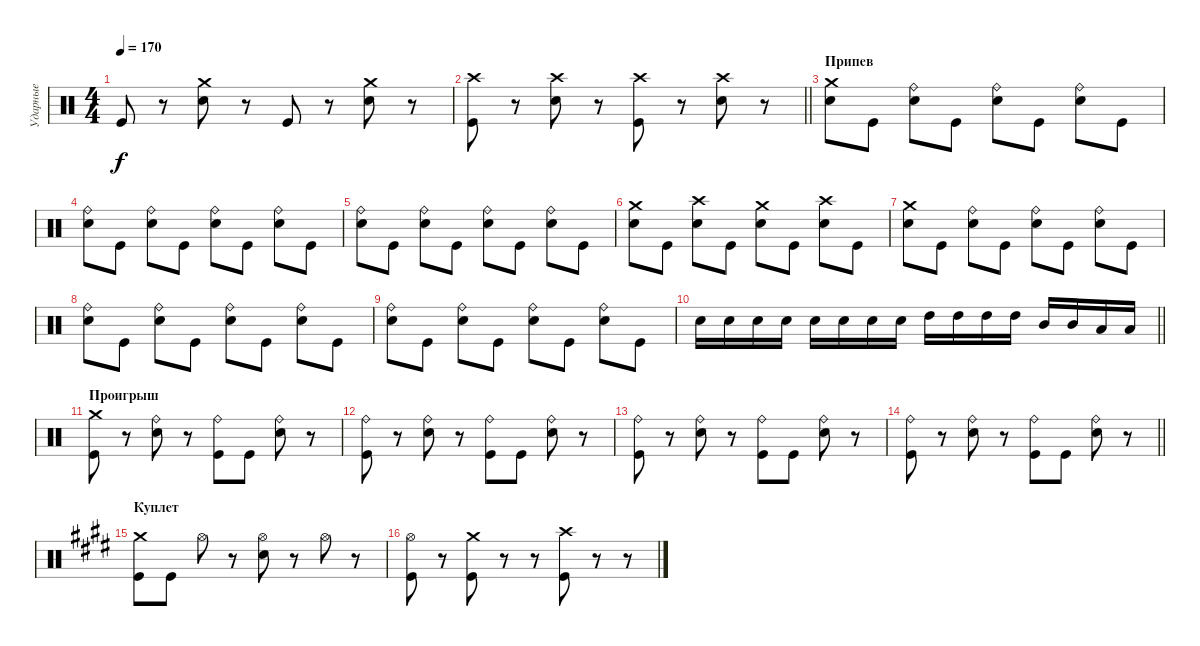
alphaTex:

\track ("Ударные" "Ударные") {instrument percussion}
\staff {score}
\articulation defaults
\ts (4 4)
\tempo 170
\clef neutral
\ks c "Kick (hit)".8{dy f}
r.8 ("Crash medium (hit)" "Electric Snare (hit)").8 r.8 "Kick (hit)".8 r.8 ("Crash medium (hit)" "Electric Snare (hit)").8 r.8 |
\barLineRight lightlight
("Crash high (hit)" "Kick (hit)").8 r.8 ("Crash high (hit)" "Electric Snare (hit)").8 r.8 ("Crash high (hit)" "Kick (hit)").8 r.8 ("Crash high (hit)" "Electric Snare (hit)").8 r.8 |
\section ("" "Припев")
("Crash medium (hit)" "Electric Snare (hit)").8 "Kick (hit)".8 ("Ride (bell)" "Electric Snare (hit)").8 "Kick (hit)".8 ("Ride (bell)" "Electric Snare (hit)").8 "Kick (hit)".8 ("Ride (bell)" "Electric Snare (hit)").8 "Kick (hit)".8 |
("Ride (bell)" "Electric Snare (hit)").8 "Kick (hit)".8 ("Ride (bell)" "Electric Snare (hit)").8 "Kick (hit)".8 ("Ride (bell)" "Electric Snare (hit)").8 "Kick (hit)".8 ("Ride (bell)" "Electric Snare (hit)").8 "Kick (hit)".8 |
("Ride (bell)" "Electric Snare (hit)").8 "Kick (hit)".8 ("Ride (bell)" "Electric Snare (hit)").8 "Kick (hit)".8 ("Ride (bell)" "Electric Snare (hit)").8 "Kick (hit)".8 ("Ride (bell)" "Electric Snare (hit)").8 "Kick (hit)".8 |
("Crash medium (hit)" "Electric Snare (hit)").8 "Kick (hit)".8 ("Crash high (hit)" "Electric Snare (hit)").8 "Kick (hit)".8 ("Crash medium (hit)" "Electric Snare (hit)").8 "Kick (hit)".8 ("Crash high (hit)" "Electric Snare (hit)").8 "Kick (hit)".8 |
("Crash medium (hit)" "Electric Snare (hit)").8 "Kick (hit)".8 ("Ride (bell)" "Electric Snare (hit)").8 "Kick (hit)".8 ("Ride (bell)" "Electric Snare (hit)").8 "Kick (hit)".8 ("Ride (bell)" "Electric Snare (hit)").8 "Kick (hit)".8 |
("Ride (bell)" "Electric Snare (hit)").8 "Kick (hit)".8 ("Ride (bell)" "Electric Snare (hit)").8 "Kick (hit)".8 ("Ride (bell)" "Electric Snare (hit)").8 "Kick (hit)".8 ("Ride (bell)" "Electric Snare (hit)").8 "Kick (hit)".8 |
("Ride (bell)" "Electric Snare (hit)").8 "Kick (hit)".8 ("Ride (bell)" "Electric Snare (hit)").8 "Kick (hit)".8 ("Ride (bell)" "Electric Snare (hit)").8 "Kick (hit)".8 ("Ride (bell)" "Electric Snare (hit)").8 "Kick (hit)".8 |
\barLineRight lightlight "Electric Snare (hit)".16 "Electric Snare (hit)".16 "Electric Snare (hit)".16 "Electric Snare (hit)".16 "Electric Snare (hit)".16 "Electric Snare (hit)".16 "Electric Snare (hit)".16 "Electric Snare (hit)".16 "High Tom (hit)".16 "High Tom (hit)".16 "High Tom (hit)".16 "High Tom (hit)".16 "Mid Tom (hit)".16 "Mid Tom (hit)".16 "Low Tom (hit)".16 "Low Tom (hit)".16
|
\section ("" "Проигрыш")
("Crash medium (hit)" "Kick (hit)").8 r.8 ("Ride (bell)" "Electric Snare (hit)").8 r.8 ("Ride (bell)" "Kick (hit)").8 "Kick (hit)".8 ("Ride (bell)" "Electric Snare (hit)").8 r.8 |
("Ride (bell)" "Kick (hit)").8 r.8 ("Ride (bell)" "Electric Snare (hit)").8 r.8 ("Ride (bell)" "Kick (hit)").8 "Kick (hit)".8 ("Ride (bell)" "Electric Snare (hit)").8 r.8 |
("Ride (bell)" "Kick (hit)").8 r.8 ("Ride (bell)" "Electric Snare (hit)").8 r.8 ("Ride (bell)" "Kick (hit)").8 "Kick (hit)".8 ("Ride (bell)" "Electric Snare (hit)").8 r.8 |
\barLineRight lightlight
("Ride (bell)" "Kick (hit)").8 r.8 ("Ride (bell)" "Electric Snare (hit)").8 r.8 ("Ride (bell)" "Kick (hit)").8 "Kick (hit)".8 ("Ride (bell)" "Electric Snare (hit)").8 r.8 |
\section ("" "Куплет")
\ks e
("Crash medium (hit)" "Kick (hit)").8 "Kick (hit)".8 "Hi-Hat (open)".8 r.8 ("Hi-Hat (open)" "Electric Snare (hit)").8 r.8 "Hi-Hat (open)".8 r.8 |
("Hi-Hat (open)" "Kick (hit)").8 r.8 ("Crash medium (hit)" "Kick (hit)").8 r.8 r.8 ("Crash high (hit)" "Kick (hit)").8 r.8 r.8
